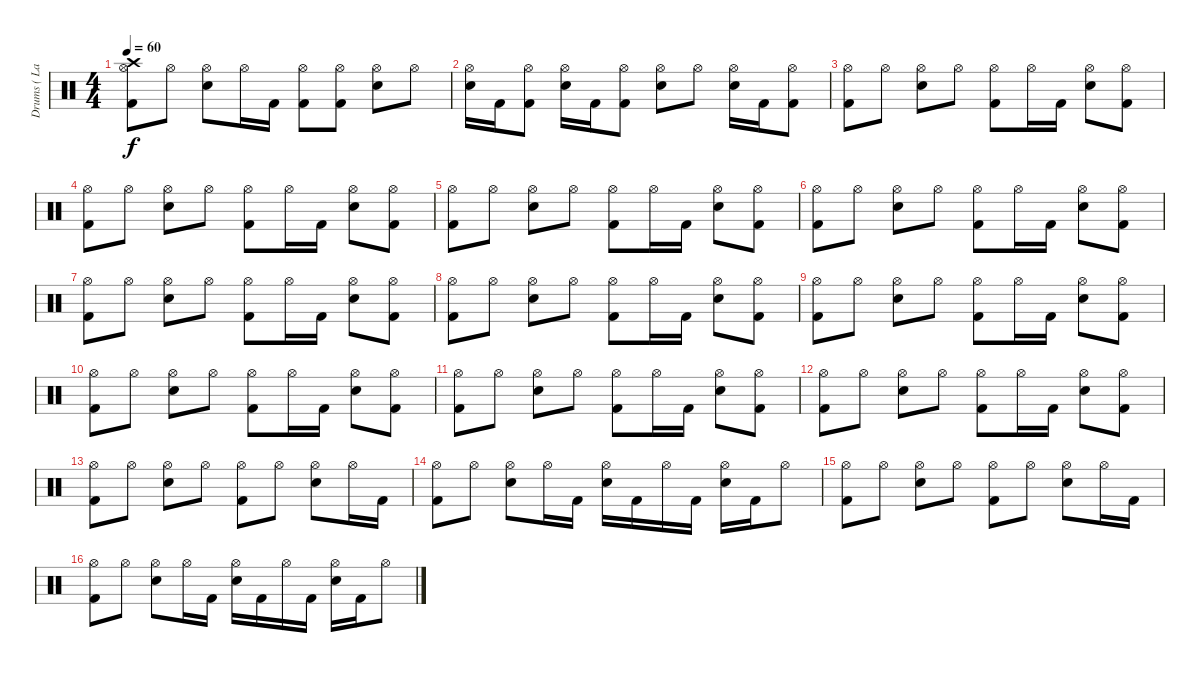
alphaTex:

\track ("Drums ( Lars )" "Drums ( La") {instrument percussion}
\staff {score}
\articulation defaults
\ts (4 4)
\tempo 60
\clef neutral
\ks c
("Kick (hit) 2" "Hi-Hat (open)" "Crash high (hit)").8{dy f} "Hi-Hat (open)".8 ("Snare (hit) 2" "Hi-Hat (open)").8 "Hi-Hat (open)".16 "Kick (hit) 2".16 ("Kick (hit) 2" "Hi-Hat (open)").8 ("Kick (hit) 2" "Hi-Hat (open)").8 ("Snare (hit) 2" "Hi-Hat (open)").8 "Hi-Hat (open)".8 |
("Snare (hit) 2" "Hi-Hat (open)").16 "Kick (hit) 2".16 ("Kick (hit) 2" "Hi-Hat (open)").8 ("Snare (hit) 2" "Hi-Hat (open)").16 "Kick (hit) 2".16 ("Kick (hit) 2" "Hi-Hat (open)").8 ("Snare (hit) 2" "Hi-Hat (open)").8 "Hi-Hat (open)".8 ("Snare (hit) 2" "Hi-Hat (open)").16 "Kick (hit) 2".16 ("Kick (hit) 2" "Hi-Hat (open)").8 |
("Kick (hit) 2" "Hi-Hat (open)").8 "Hi-Hat (open)".8 ("Snare (hit) 2" "Hi-Hat (open)").8 "Hi-Hat (open)".8 ("Kick (hit) 2" "Hi-Hat (open)").8 "Hi-Hat (open)".16 "Kick (hit) 2".16 ("Snare (hit) 2" "Hi-Hat (open)").8 ("Kick (hit) 2" "Hi-Hat (open)").8 |
("Kick (hit) 2" "Hi-Hat (open)").8 "Hi-Hat (open)".8 ("Snare (hit) 2" "Hi-Hat (open)").8 "Hi-Hat (open)".8 ("Kick (hit) 2" "Hi-Hat (open)").8 "Hi-Hat (open)".16 "Kick (hit) 2".16 ("Snare (hit) 2" "Hi-Hat (open)").8 ("Kick (hit) 2" "Hi-Hat (open)").8 |
("Kick (hit) 2" "Hi-Hat (open)").8 "Hi-Hat (open)".8 ("Snare (hit) 2" "Hi-Hat (open)").8 "Hi-Hat (open)".8 ("Kick (hit) 2" "Hi-Hat (open)").8 "Hi-Hat (open)".16 "Kick (hit) 2".16 ("Snare (hit) 2" "Hi-Hat (open)").8 ("Kick (hit) 2" "Hi-Hat (open)").8 |
("Kick (hit) 2" "Hi-Hat (open)").8 "Hi-Hat (open)".8 ("Snare (hit) 2" "Hi-Hat (open)").8 "Hi-Hat (open)".8 ("Kick (hit) 2" "Hi-Hat (open)").8 "Hi-Hat (open)".16 "Kick (hit) 2".16 ("Snare (hit) 2" "Hi-Hat (open)").8 ("Kick (hit) 2" "Hi-Hat (open)").8 |
("Kick (hit) 2" "Hi-Hat (open)").8 "Hi-Hat (open)".8 ("Snare (hit) 2" "Hi-Hat (open)").8 "Hi-Hat (open)".8 ("Kick (hit) 2" "Hi-Hat (open)").8 "Hi-Hat (open)".16 "Kick (hit) 2".16 ("Snare (hit) 2" "Hi-Hat (open)").8 ("Kick (hit) 2" "Hi-Hat (open)").8 |
("Kick (hit) 2" "Hi-Hat (open)").8 "Hi-Hat (open)".8 ("Snare (hit) 2" "Hi-Hat (open)").8 "Hi-Hat (open)".8 ("Kick (hit) 2" "Hi-Hat (open)").8 "Hi-Hat (open)".16 "Kick (hit) 2".16 ("Snare (hit) 2" "Hi-Hat (open)").8 ("Kick (hit) 2" "Hi-Hat (open)").8 |
("Kick (hit) 2" "Hi-Hat (open)").8 "Hi-Hat (open)".8 ("Snare (hit) 2" "Hi-Hat (open)").8 "Hi-Hat (open)".8 ("Kick (hit) 2" "Hi-Hat (open)").8 "Hi-Hat (open)".16 "Kick (hit) 2".16 ("Snare (hit) 2" "Hi-Hat (open)").8 ("Kick (hit) 2" "Hi-Hat (open)").8 |
("Kick (hit) 2" "Hi-Hat (open)").8 "Hi-Hat (open)".8 ("Snare (hit) 2" "Hi-Hat (open)").8 "Hi-Hat (open)".8 ("Kick (hit) 2" "Hi-Hat (open)").8 "Hi-Hat (open)".16 "Kick (hit) 2".16 ("Snare (hit) 2" "Hi-Hat (open)").8 ("Kick (hit) 2" "Hi-Hat (open)").8 |
("Kick (hit) 2" "Hi-Hat (open)").8 "Hi-Hat (open)".8 ("Snare (hit) 2" "Hi-Hat (open)").8 "Hi-Hat (open)".8 ("Kick (hit) 2" "Hi-Hat (open)").8 "Hi-Hat (open)".16 "Kick (hit) 2".16 ("Snare (hit) 2" "Hi-Hat (open)").8 ("Kick (hit) 2" "Hi-Hat (open)").8 |
("Kick (hit) 2" "Hi-Hat (open)").8 "Hi-Hat (open)".8 ("Snare (hit) 2" "Hi-Hat (open)").8 "Hi-Hat (open)".8 ("Kick (hit) 2" "Hi-Hat (open)").8 "Hi-Hat (open)".16 "Kick (hit) 2".16 ("Snare (hit) 2" "Hi-Hat (open)").8 ("Kick (hit) 2" "Hi-Hat (open)").8 |
("Kick (hit) 2" "Hi-Hat (open)").8 "Hi-Hat (open)".8 ("Snare (hit) 2" "Hi-Hat (open)").8 "Hi-Hat (open)".8 ("Kick (hit) 2" "Hi-Hat (open)").8 "Hi-Hat (open)".8 ("Snare (hit) 2" "Hi-Hat (open)").8 "Hi-Hat (open)".16 "Kick (hit) 2".16 |
("Kick (hit) 2" "Hi-Hat (open)").8 "Hi-Hat (open)".8 ("Snare (hit) 2" "Hi-Hat (open)").8 "Hi-Hat (open)".16 "Kick (hit) 2".16 ("Snare (hit) 2" "Hi-Hat (open)").16 "Kick (hit) 2".16 "Hi-Hat (open)".16 "Kick (hit) 2".16 ("Snare (hit) 2" "Hi-Hat (open)").16 "Kick (hit) 2".16 "Hi-Hat (open)".8 |
("Kick (hit) 2" "Hi-Hat (open)").8 "Hi-Hat (open)".8 ("Snare (hit) 2" "Hi-Hat (open)").8 "Hi-Hat (open)".8 ("Kick (hit) 2" "Hi-Hat (open)").8 "Hi-Hat (open)".8 ("Snare (hit) 2" "Hi-Hat (open)").8 "Hi-Hat (open)".16 "Kick (hit) 2".16 |
("Kick (hit) 2" "Hi-Hat (open)").8 "Hi-Hat (open)".8 ("Snare (hit) 2" "Hi-Hat (open)").8 "Hi-Hat (open)".16 "Kick (hit) 2".16 ("Snare (hit) 2" "Hi-Hat (open)").16 "Kick (hit) 2".16 "Hi-Hat (open)".16 "Kick (hit) 2".16 ("Snare (hit) 2" "Hi-Hat (open)").16 "Kick (hit) 2".16 "Hi-Hat (open)".8
